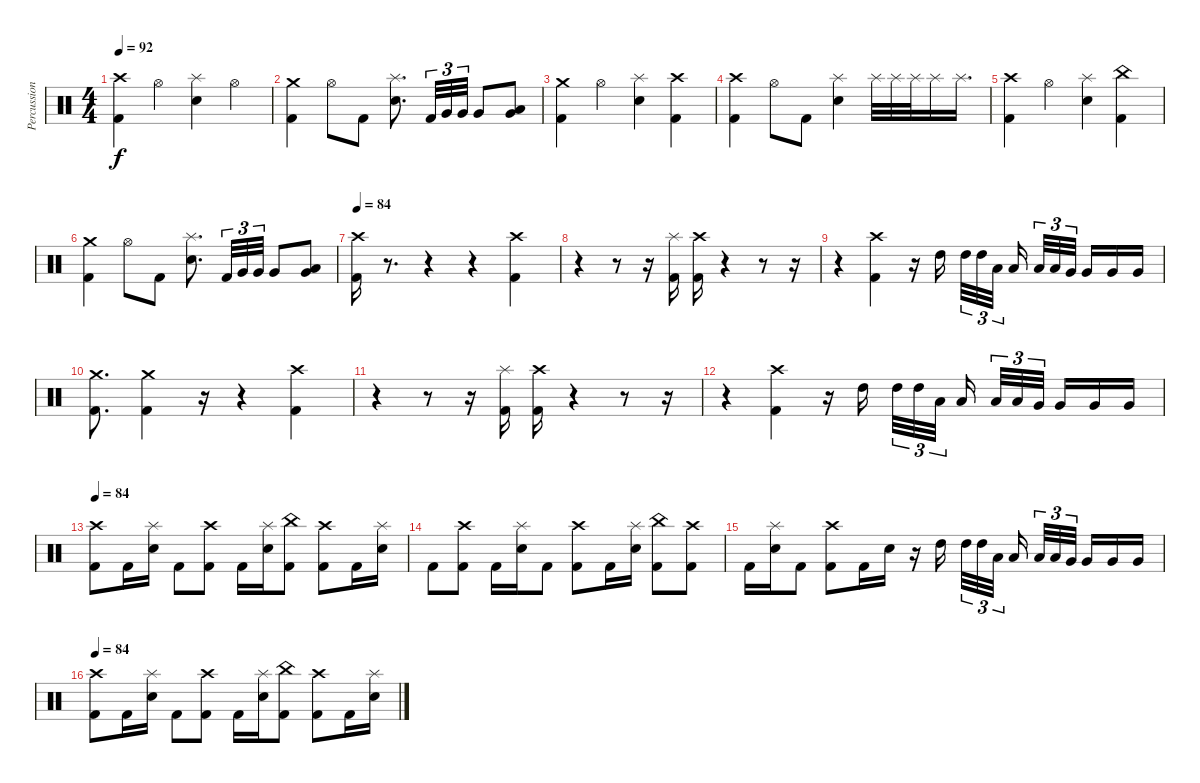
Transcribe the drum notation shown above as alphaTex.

\track ("Percussion" "Percussion") {instrument percussion}
\staff {score}
\articulation defaults
\ts (4 4)
\tempo 92
\clef neutral
\ks c
("Crash high (hit)" "Kick (hit) 2").4{dy f} "Hi-Hat (open)".4 ("Splash (hit)" "Electric Snare (hit)").4 "Hi-Hat (open)".4 |
("Crash medium (hit)" "Kick (hit) 2").4 "Hi-Hat (open)".8 "Kick (hit) 2".8 ("Splash (hit)" "Electric Snare (hit)").8{d} "Kick (hit) 2".32{tu (3 2)} "Very Low Tom (hit)".32{tu (3 2)} "Very Low Tom (hit)".32{tu (3 2)} "Very Low Tom (hit)".8 ("Low Tom (hit)" "Very Low Tom (hit)").8 |
("Crash medium (hit)" "Kick (hit) 2").4 "Hi-Hat (open)".4 ("Splash (hit)" "Electric Snare (hit)").4 ("Kick (hit) 2" "Crash high (hit)").4 |
("Crash high (hit)" "Kick (hit) 2").4 "Hi-Hat (open)".8 "Kick (hit) 2".8 ("Splash (hit)" "Electric Snare (hit)").4 "Splash (hit)".32 "Splash (hit)".32 "Splash (hit)".32 "Splash (hit)".16 "Splash (hit)".16{d} |
("Crash high (hit)" "Kick (hit) 2").4 "Hi-Hat (open)".4 ("Splash (hit)" "Electric Snare (hit)").4 ("China (hit)" "Kick (hit) 2").4 |
("Crash medium (hit)" "Kick (hit) 2").4 "Hi-Hat (open)".8 "Kick (hit) 2".8 ("Splash (hit)" "Electric Snare (hit)").8{d} "Kick (hit) 2".32{tu (3 2)} "Very Low Tom (hit)".32{tu (3 2)} "Very Low Tom (hit)".32{tu (3 2)} "Very Low Tom (hit)".8 ("Low Tom (hit)" "Very Low Tom (hit)").8 |
\tempo 84
("Kick (hit) 2" "Crash high (hit)").16 r.8{d} r.4 r.4 ("Kick (hit) 2" "Crash high (hit)").4 |
r.4 r.8 r.16 ("Kick (hit) 2" "Splash (hit)").16 ("Kick (hit) 2" "Crash high (hit)").16 r.4 r.8 r.16 |
r.4 ("Crash high (hit)" "Kick (hit) 2").4 r.16 "High Tom (hit)".16 "High Tom (hit)".32{tu (3 2)} "High Tom (hit)".32{tu (3 2)} "Low Tom (hit)".32{tu (3 2)} "Low Tom (hit)".16 "Low Tom (hit)".32{tu (3 2)} "Low Tom (hit)".32{tu (3 2)} "Very Low Tom (hit)".32{tu (3 2)} "Very Low Tom (hit)".16 "Very Low Tom (hit)".16 "Very Low Tom (hit)".16 |
("Crash medium (hit)" "Kick (hit) 2").8{d} ("Crash medium (hit)" "Kick (hit) 2").4 r.16 r.4 ("Kick (hit) 2" "Crash high (hit)").4 |
r.4 r.8 r.16 ("Kick (hit) 2" "Splash (hit)").16 ("Kick (hit) 2" "Crash high (hit)").16 r.4 r.8 r.16 |
r.4 ("Crash high (hit)" "Kick (hit) 2").4 r.16 "High Tom (hit)".16 "High Tom (hit)".32{tu (3 2)} "High Tom (hit)".32{tu (3 2)} "Low Tom (hit)".32{tu (3 2)} "Low Tom (hit)".16 "Low Tom (hit)".32{tu (3 2)} "Low Tom (hit)".32{tu (3 2)} "Very Low Tom (hit)".32{tu (3 2)} "Very Low Tom (hit)".16 "Very Low Tom (hit)".16 "Very Low Tom (hit)".16 |
\tempo 84
("Crash high (hit)" "Kick (hit) 2").8 "Kick (hit) 2".16 ("Splash (hit)" "Electric Snare (hit)").16 "Kick (hit) 2".8 ("Crash high (hit)" "Kick (hit) 2").8 "Kick (hit) 2".16 ("Splash (hit)" "Electric Snare (hit)").16 ("China (hit)" "Kick (hit) 2").8 ("Crash high (hit)" "Kick (hit) 2").8 "Kick (hit) 2".16 ("Splash (hit)" "Electric Snare (hit)").16 |
"Kick (hit) 2".8 ("Crash high (hit)" "Kick (hit) 2").8 "Kick (hit) 2".16 ("Splash (hit)" "Electric Snare (hit)").16 "Kick (hit) 2".8 ("Crash high (hit)" "Kick (hit) 2").8 "Kick (hit) 2".16 ("Splash (hit)" "Electric Snare (hit)").16 ("China (hit)" "Kick (hit) 2").8 ("Crash high (hit)" "Kick (hit) 2").8 |
"Kick (hit) 2".16 ("Splash (hit)" "Electric Snare (hit)").16 "Kick (hit) 2".8 ("Crash high (hit)" "Kick (hit) 2").8 "Kick (hit) 2".16 "Electric Snare (hit)".16 r.16 "High Tom (hit)".16 "High Tom (hit)".32{tu (3 2)} "High Tom (hit)".32{tu (3 2)} "Low Tom (hit)".32{tu (3 2)} "Low Tom (hit)".16 "Low Tom (hit)".32{tu (3 2)} "Low Tom (hit)".32{tu (3 2)} "Very Low Tom (hit)".32{tu (3 2)} "Very Low Tom (hit)".16 "Very Low Tom (hit)".16 "Very Low Tom (hit)".16 |
\tempo 84
("Crash high (hit)" "Kick (hit) 2").8 "Kick (hit) 2".16 ("Splash (hit)" "Electric Snare (hit)").16 "Kick (hit) 2".8 ("Crash high (hit)" "Kick (hit) 2").8 "Kick (hit) 2".16 ("Splash (hit)" "Electric Snare (hit)").16 ("China (hit)" "Kick (hit) 2").8 ("Crash high (hit)" "Kick (hit) 2").8 "Kick (hit) 2".16 ("Splash (hit)" "Electric Snare (hit)").16
